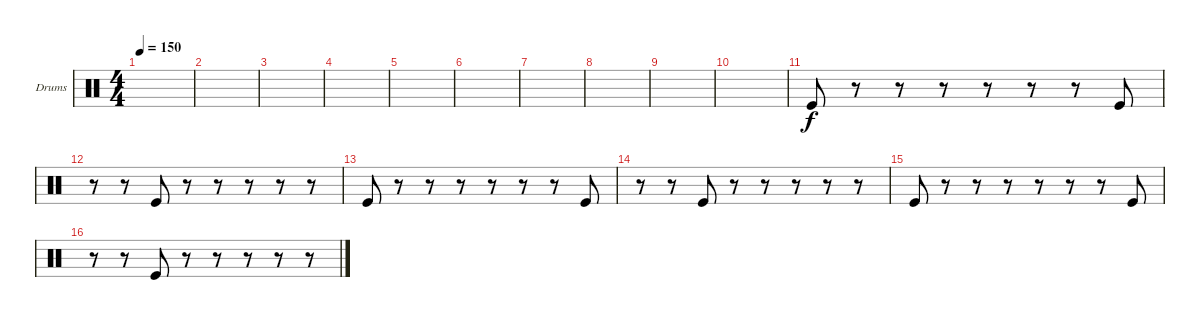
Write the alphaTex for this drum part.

\bracketExtendMode groupsimilarinstruments
\firstSystemTrackNameOrientation horizontal
\otherSystemsTrackNameOrientation horizontal
\track ("Drumkit Kick" "Drums ") {instrument percussion}
\staff {score}
\articulation defaults
\ts (4 4)
\tempo 150
\clef neutral
\scale
0.333333
\ks c
|
\scale
0.333333 |
\scale
0.333333 |
\scale
0.333333 |
\scale
0.333333 |
\scale
0.333333 |
\scale
0.333333 |
\scale
0.333333 |
\scale
0.333333 |
\scale
0.333333 |
\scale
0.333333 "Kick (hit)".8 r.8 r.8 r.8 r.8 r.8 r.8 "Kick (hit)".8 |
\scale
0.333333 r.8 r.8 "Kick (hit)".8 r.8 r.8 r.8 r.8 r.8 |
\scale
0.333333 "Kick (hit)".8 r.8 r.8 r.8 r.8 r.8 r.8 "Kick (hit)".8 |
\scale
0.333333 r.8 r.8 "Kick (hit)".8 r.8 r.8 r.8 r.8 r.8 |
\scale
0.333333 "Kick (hit)".8 r.8 r.8 r.8 r.8 r.8 r.8 "Kick (hit)".8 |
\scale
0.333333 r.8 r.8 "Kick (hit)".8 r.8 r.8 r.8 r.8 r.8
